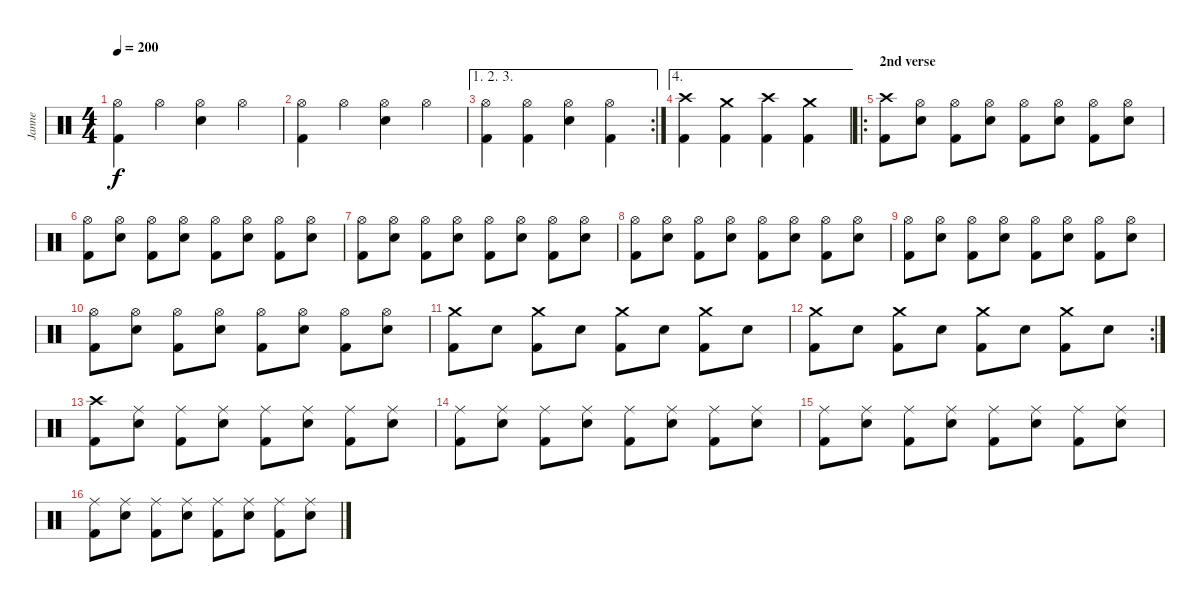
\track ("Janne" "Janne") {instrument percussion}
\staff {score}
\articulation defaults
\ts (4 4)
\tempo 200
\clef neutral
\ks c
("Hi-Hat (open)" "Kick (hit) 2").4{dy f} "Hi-Hat (open)".4 ("Hi-Hat (open)" "Electric Snare (hit)").4 "Hi-Hat (open)".4 |
("Hi-Hat (open)" "Kick (hit) 2").4 "Hi-Hat (open)".4 ("Hi-Hat (open)" "Electric Snare (hit)").4 "Hi-Hat (open)".4 |
\ae (1 2 3)
\rc 2
("Hi-Hat (open)" "Kick (hit) 2").4 ("Hi-Hat (open)" "Kick (hit) 2").4 ("Hi-Hat (open)" "Electric Snare (hit)").4 ("Hi-Hat (open)" "Kick (hit) 2").4 |
\ae 4
("Crash high (hit)" "Kick (hit) 2").4 ("Crash medium (hit)" "Kick (hit) 2").4 ("Crash high (hit)" "Kick (hit) 2").4 ("Crash medium (hit)" "Kick (hit) 2").4 |
\ro
\section ("" "2nd verse")
("Crash high (hit)" "Kick (hit) 2").8 ("Hi-Hat (open)" "Electric Snare (hit)").8 ("Hi-Hat (open)" "Kick (hit) 2").8 ("Hi-Hat (open)" "Electric Snare (hit)").8 ("Hi-Hat (open)" "Kick (hit) 2").8 ("Hi-Hat (open)" "Electric Snare (hit)").8 ("Hi-Hat (open)" "Kick (hit) 2").8 ("Hi-Hat (open)" "Electric Snare (hit)").8 |
("Hi-Hat (open)" "Kick (hit) 2").8 ("Hi-Hat (open)" "Electric Snare (hit)").8 ("Hi-Hat (open)" "Kick (hit) 2").8 ("Hi-Hat (open)" "Electric Snare (hit)").8 ("Hi-Hat (open)" "Kick (hit) 2").8 ("Hi-Hat (open)" "Electric Snare (hit)").8 ("Hi-Hat (open)" "Kick (hit) 2").8 ("Hi-Hat (open)" "Electric Snare (hit)").8 |
("Hi-Hat (open)" "Kick (hit) 2").8 ("Hi-Hat (open)" "Electric Snare (hit)").8 ("Hi-Hat (open)" "Kick (hit) 2").8 ("Hi-Hat (open)" "Electric Snare (hit)").8 ("Hi-Hat (open)" "Kick (hit) 2").8 ("Hi-Hat (open)" "Electric Snare (hit)").8 ("Hi-Hat (open)" "Kick (hit) 2").8 ("Hi-Hat (open)" "Electric Snare (hit)").8 |
("Hi-Hat (open)" "Kick (hit) 2").8 ("Hi-Hat (open)" "Electric Snare (hit)").8 ("Hi-Hat (open)" "Kick (hit) 2").8 ("Hi-Hat (open)" "Electric Snare (hit)").8 ("Hi-Hat (open)" "Kick (hit) 2").8 ("Hi-Hat (open)" "Electric Snare (hit)").8 ("Hi-Hat (open)" "Kick (hit) 2").8 ("Hi-Hat (open)" "Electric Snare (hit)").8 |
("Hi-Hat (open)" "Kick (hit) 2").8 ("Hi-Hat (open)" "Electric Snare (hit)").8 ("Hi-Hat (open)" "Kick (hit) 2").8 ("Hi-Hat (open)" "Electric Snare (hit)").8 ("Hi-Hat (open)" "Kick (hit) 2").8 ("Hi-Hat (open)" "Electric Snare (hit)").8 ("Hi-Hat (open)" "Kick (hit) 2").8 ("Hi-Hat (open)" "Electric Snare (hit)").8 |
("Hi-Hat (open)" "Kick (hit) 2").8 ("Hi-Hat (open)" "Electric Snare (hit)").8 ("Hi-Hat (open)" "Kick (hit) 2").8 ("Hi-Hat (open)" "Electric Snare (hit)").8 ("Hi-Hat (open)" "Kick (hit) 2").8 ("Hi-Hat (open)" "Electric Snare (hit)").8 ("Hi-Hat (open)" "Kick (hit) 2").8 ("Hi-Hat (open)" "Electric Snare (hit)").8 |
("Crash medium (hit)" "Kick (hit) 2").8 "Electric Snare (hit)".8 ("Crash medium (hit)" "Kick (hit) 2").8 "Electric Snare (hit)".8 ("Crash medium (hit)" "Kick (hit) 2").8 "Electric Snare (hit)".8 ("Crash medium (hit)" "Kick (hit) 2").8 "Electric Snare (hit)".8 |
\rc 2
("Crash medium (hit)" "Kick (hit) 2").8 "Electric Snare (hit)".8 ("Crash medium (hit)" "Kick (hit) 2").8 "Electric Snare (hit)".8 ("Crash medium (hit)" "Kick (hit) 2").8 "Electric Snare (hit)".8 ("Crash medium (hit)" "Kick (hit) 2").8 "Electric Snare (hit)".8 |
("Crash high (hit)" "Kick (hit) 2").8 ("Ride (middle)" "Electric Snare (hit)").8 ("Ride (middle)" "Kick (hit) 2").8 ("Ride (middle)" "Electric Snare (hit)").8 ("Ride (middle)" "Kick (hit) 2").8 ("Ride (middle)" "Electric Snare (hit)").8 ("Ride (middle)" "Kick (hit) 2").8 ("Ride (middle)" "Electric Snare (hit)").8 |
("Ride (middle)" "Kick (hit) 2").8 ("Ride (middle)" "Electric Snare (hit)").8 ("Ride (middle)" "Kick (hit) 2").8 ("Ride (middle)" "Electric Snare (hit)").8 ("Ride (middle)" "Kick (hit) 2").8 ("Ride (middle)" "Electric Snare (hit)").8 ("Ride (middle)" "Kick (hit) 2").8 ("Ride (middle)" "Electric Snare (hit)").8 |
("Ride (middle)" "Kick (hit) 2").8 ("Ride (middle)" "Electric Snare (hit)").8 ("Ride (middle)" "Kick (hit) 2").8 ("Ride (middle)" "Electric Snare (hit)").8 ("Ride (middle)" "Kick (hit) 2").8 ("Ride (middle)" "Electric Snare (hit)").8 ("Ride (middle)" "Kick (hit) 2").8 ("Ride (middle)" "Electric Snare (hit)").8 |
("Ride (middle)" "Kick (hit) 2").8 ("Ride (middle)" "Electric Snare (hit)").8 ("Ride (middle)" "Kick (hit) 2").8 ("Ride (middle)" "Electric Snare (hit)").8 ("Ride (middle)" "Kick (hit) 2").8 ("Ride (middle)" "Electric Snare (hit)").8 ("Ride (middle)" "Kick (hit) 2").8 ("Ride (middle)" "Electric Snare (hit)").8
